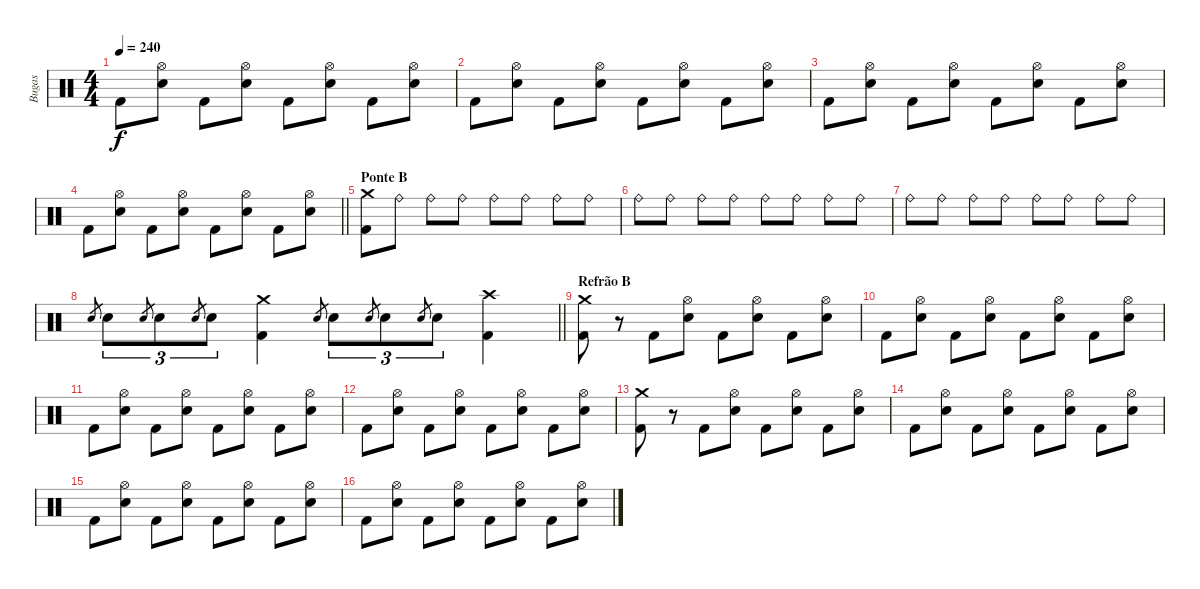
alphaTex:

\track ("Bugas" "Bugas") {instrument percussion}
\staff {score}
\articulation defaults
\ts (4 4)
\tempo 240
\clef neutral
\ks c "Kick (hit) 2".8{dy f}
("Hi-Hat (open)" "Electric Snare (hit)").8 "Kick (hit) 2".8 ("Hi-Hat (open)" "Electric Snare (hit)").8 "Kick (hit) 2".8 ("Hi-Hat (open)" "Electric Snare (hit)").8 "Kick (hit) 2".8 ("Hi-Hat (open)" "Electric Snare (hit)").8 |
"Kick (hit) 2".8 ("Hi-Hat (open)" "Electric Snare (hit)").8 "Kick (hit) 2".8 ("Hi-Hat (open)" "Electric Snare (hit)").8 "Kick (hit) 2".8 ("Hi-Hat (open)" "Electric Snare (hit)").8 "Kick (hit) 2".8 ("Hi-Hat (open)" "Electric Snare (hit)").8 |
"Kick (hit) 2".8 ("Hi-Hat (open)" "Electric Snare (hit)").8 "Kick (hit) 2".8 ("Hi-Hat (open)" "Electric Snare (hit)").8 "Kick (hit) 2".8 ("Hi-Hat (open)" "Electric Snare (hit)").8 "Kick (hit) 2".8 ("Hi-Hat (open)" "Electric Snare (hit)").8 |
\barLineRight lightlight "Kick (hit) 2".8
("Hi-Hat (open)" "Electric Snare (hit)").8 "Kick (hit) 2".8 ("Hi-Hat (open)" "Electric Snare (hit)").8 "Kick (hit) 2".8 ("Hi-Hat (open)" "Electric Snare (hit)").8 "Kick (hit) 2".8 ("Hi-Hat (open)" "Electric Snare (hit)").8 |
\section ("" "Ponte B")
("Crash medium (hit)" "Kick (hit) 2").8 "Ride (bell)".8 "Ride (bell)".8 "Ride (bell)".8 "Ride (bell)".8 "Ride (bell)".8 "Ride (bell)".8 "Ride (bell)".8 |
"Ride (bell)".8 "Ride (bell)".8 "Ride (bell)".8 "Ride (bell)".8 "Ride (bell)".8 "Ride (bell)".8 "Ride (bell)".8 "Ride (bell)".8 |
"Ride (bell)".8 "Ride (bell)".8 "Ride (bell)".8 "Ride (bell)".8 "Ride (bell)".8 "Ride (bell)".8 "Ride (bell)".8 "Ride (bell)".8 |
\barLineRight lightlight "Electric Snare (hit)".8{gr} "Electric Snare (hit)".8{tu (3 2)} "Electric Snare (hit)".8{gr} "Electric Snare (hit)".8{tu (3 2)} "Electric Snare (hit)".8{gr} "Electric Snare (hit)".8{tu (3 2)}
("Crash medium (hit)" "Kick (hit) 2").4 "Electric Snare (hit)".8{gr} "Electric Snare (hit)".8{tu (3 2)} "Electric Snare (hit)".8{gr} "Electric Snare (hit)".8{tu (3 2)} "Electric Snare (hit)".8{gr} "Electric Snare (hit)".8{tu (3 2)} ("Crash high (hit)" "Kick (hit) 2").4 |
\section ("" "Refrão B")
("Crash medium (hit)" "Kick (hit) 2").8 r.8 "Kick (hit) 2".8 ("Hi-Hat (open)" "Electric Snare (hit)").8 "Kick (hit) 2".8 ("Hi-Hat (open)" "Electric Snare (hit)").8 "Kick (hit) 2".8 ("Hi-Hat (open)" "Electric Snare (hit)").8 |
"Kick (hit) 2".8 ("Hi-Hat (open)" "Electric Snare (hit)").8 "Kick (hit) 2".8 ("Hi-Hat (open)" "Electric Snare (hit)").8 "Kick (hit) 2".8 ("Hi-Hat (open)" "Electric Snare (hit)").8 "Kick (hit) 2".8 ("Hi-Hat (open)" "Electric Snare (hit)").8 |
"Kick (hit) 2".8 ("Hi-Hat (open)" "Electric Snare (hit)").8 "Kick (hit) 2".8 ("Hi-Hat (open)" "Electric Snare (hit)").8 "Kick (hit) 2".8 ("Hi-Hat (open)" "Electric Snare (hit)").8 "Kick (hit) 2".8 ("Hi-Hat (open)" "Electric Snare (hit)").8 |
"Kick (hit) 2".8 ("Hi-Hat (open)" "Electric Snare (hit)").8 "Kick (hit) 2".8 ("Hi-Hat (open)" "Electric Snare (hit)").8 "Kick (hit) 2".8 ("Hi-Hat (open)" "Electric Snare (hit)").8 "Kick (hit) 2".8 ("Hi-Hat (open)" "Electric Snare (hit)").8 |
("Crash medium (hit)" "Kick (hit) 2").8 r.8 "Kick (hit) 2".8 ("Hi-Hat (open)" "Electric Snare (hit)").8 "Kick (hit) 2".8 ("Hi-Hat (open)" "Electric Snare (hit)").8 "Kick (hit) 2".8 ("Hi-Hat (open)" "Electric Snare (hit)").8 |
"Kick (hit) 2".8 ("Hi-Hat (open)" "Electric Snare (hit)").8 "Kick (hit) 2".8 ("Hi-Hat (open)" "Electric Snare (hit)").8 "Kick (hit) 2".8 ("Hi-Hat (open)" "Electric Snare (hit)").8 "Kick (hit) 2".8 ("Hi-Hat (open)" "Electric Snare (hit)").8 |
"Kick (hit) 2".8 ("Hi-Hat (open)" "Electric Snare (hit)").8 "Kick (hit) 2".8 ("Hi-Hat (open)" "Electric Snare (hit)").8 "Kick (hit) 2".8 ("Hi-Hat (open)" "Electric Snare (hit)").8 "Kick (hit) 2".8 ("Hi-Hat (open)" "Electric Snare (hit)").8 |
"Kick (hit) 2".8 ("Hi-Hat (open)" "Electric Snare (hit)").8 "Kick (hit) 2".8 ("Hi-Hat (open)" "Electric Snare (hit)").8 "Kick (hit) 2".8 ("Hi-Hat (open)" "Electric Snare (hit)").8 "Kick (hit) 2".8 ("Hi-Hat (open)" "Electric Snare (hit)").8
